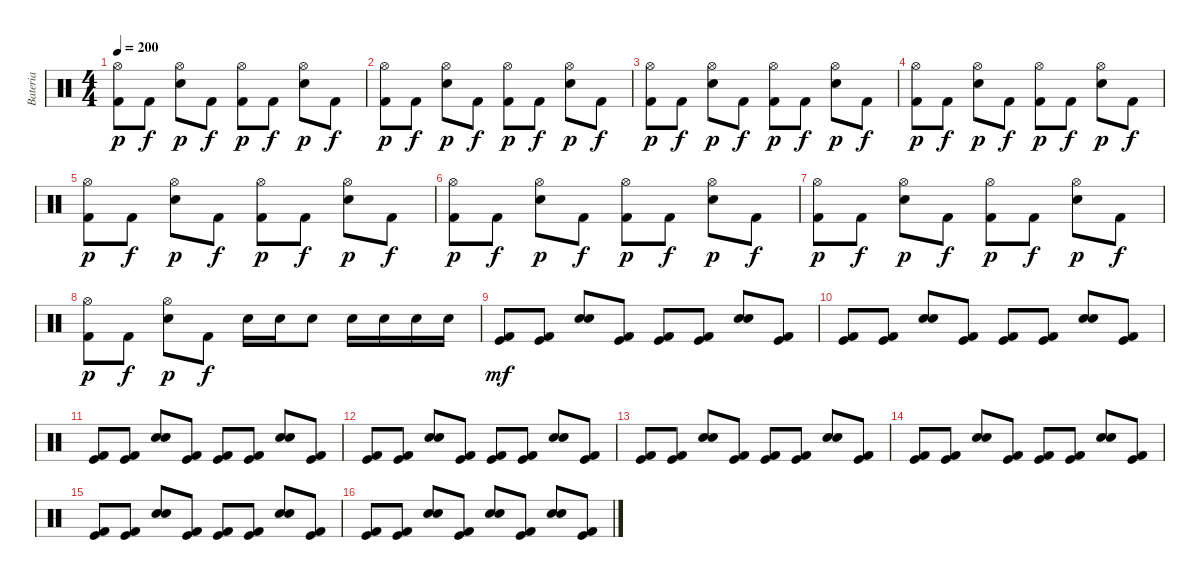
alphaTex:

\track ("Bateria" "Bateria") {instrument percussion}
\staff {score}
\articulation defaults
\ts (4 4)
\tempo 200
\clef neutral
\ks c
("Kick (hit) 2" "Hi-Hat (open)").8{dy p} "Kick (hit) 2".8{dy f} ("Electric Snare (hit)" "Hi-Hat (open)").8{dy p} "Kick (hit) 2".8{dy f} ("Kick (hit) 2" "Hi-Hat (open)").8{dy p} "Kick (hit) 2".8{dy f} ("Electric Snare (hit)" "Hi-Hat (open)").8{dy p} "Kick (hit) 2".8{dy f} |
("Kick (hit) 2" "Hi-Hat (open)").8{dy p} "Kick (hit) 2".8{dy f} ("Electric Snare (hit)" "Hi-Hat (open)").8{dy p} "Kick (hit) 2".8{dy f} ("Kick (hit) 2" "Hi-Hat (open)").8{dy p} "Kick (hit) 2".8{dy f} ("Electric Snare (hit)" "Hi-Hat (open)").8{dy p} "Kick (hit) 2".8{dy f} |
("Kick (hit) 2" "Hi-Hat (open)").8{dy p} "Kick (hit) 2".8{dy f} ("Electric Snare (hit)" "Hi-Hat (open)").8{dy p} "Kick (hit) 2".8{dy f} ("Kick (hit) 2" "Hi-Hat (open)").8{dy p} "Kick (hit) 2".8{dy f} ("Electric Snare (hit)" "Hi-Hat (open)").8{dy p} "Kick (hit) 2".8{dy f} |
("Kick (hit) 2" "Hi-Hat (open)").8{dy p} "Kick (hit) 2".8{dy f} ("Electric Snare (hit)" "Hi-Hat (open)").8{dy p} "Kick (hit) 2".8{dy f} ("Kick (hit) 2" "Hi-Hat (open)").8{dy p} "Kick (hit) 2".8{dy f} ("Electric Snare (hit)" "Hi-Hat (open)").8{dy p} "Kick (hit) 2".8{dy f} |
("Kick (hit) 2" "Hi-Hat (open)").8{dy p} "Kick (hit) 2".8{dy f} ("Electric Snare (hit)" "Hi-Hat (open)").8{dy p} "Kick (hit) 2".8{dy f} ("Kick (hit) 2" "Hi-Hat (open)").8{dy p} "Kick (hit) 2".8{dy f} ("Electric Snare (hit)" "Hi-Hat (open)").8{dy p} "Kick (hit) 2".8{dy f} |
("Kick (hit) 2" "Hi-Hat (open)").8{dy p} "Kick (hit) 2".8{dy f} ("Electric Snare (hit)" "Hi-Hat (open)").8{dy p} "Kick (hit) 2".8{dy f} ("Kick (hit) 2" "Hi-Hat (open)").8{dy p} "Kick (hit) 2".8{dy f} ("Electric Snare (hit)" "Hi-Hat (open)").8{dy p} "Kick (hit) 2".8{dy f} |
("Kick (hit) 2" "Hi-Hat (open)").8{dy p} "Kick (hit) 2".8{dy f} ("Electric Snare (hit)" "Hi-Hat (open)").8{dy p} "Kick (hit) 2".8{dy f} ("Kick (hit) 2" "Hi-Hat (open)").8{dy p} "Kick (hit) 2".8{dy f} ("Electric Snare (hit)" "Hi-Hat (open)").8{dy p} "Kick (hit) 2".8{dy f} |
("Kick (hit) 2" "Hi-Hat (open)").8{dy p} "Kick (hit) 2".8{dy f} ("Electric Snare (hit)" "Hi-Hat (open)").8{dy p} "Kick (hit) 2".8{dy f} "Electric Snare (hit)".16 "Electric Snare (hit)".16 "Electric Snare (hit)".8 "Electric Snare (hit)".16 "Electric Snare (hit)".16 "Electric Snare (hit)".16 "Electric Snare (hit)".16 |
("Kick (hit)" "Kick (hit) 2").8{dy mf} ("Kick (hit)" "Kick (hit) 2").8 ("Electric Snare (hit)" "Snare (hit) 2").8 ("Kick (hit)" "Kick (hit) 2").8 ("Kick (hit)" "Kick (hit) 2").8 ("Kick (hit)" "Kick (hit) 2").8 ("Electric Snare (hit)" "Snare (hit) 2").8 ("Kick (hit)" "Kick (hit) 2").8 |
("Kick (hit)" "Kick (hit) 2").8 ("Kick (hit)" "Kick (hit) 2").8 ("Electric Snare (hit)" "Snare (hit) 2").8 ("Kick (hit)" "Kick (hit) 2").8 ("Kick (hit)" "Kick (hit) 2").8 ("Kick (hit)" "Kick (hit) 2").8 ("Electric Snare (hit)" "Snare (hit) 2").8 ("Kick (hit)" "Kick (hit) 2").8 |
("Kick (hit)" "Kick (hit) 2").8 ("Kick (hit)" "Kick (hit) 2").8 ("Electric Snare (hit)" "Snare (hit) 2").8 ("Kick (hit)" "Kick (hit) 2").8 ("Kick (hit)" "Kick (hit) 2").8 ("Kick (hit)" "Kick (hit) 2").8 ("Electric Snare (hit)" "Snare (hit) 2").8 ("Kick (hit)" "Kick (hit) 2").8 |
("Kick (hit)" "Kick (hit) 2").8 ("Kick (hit)" "Kick (hit) 2").8 ("Electric Snare (hit)" "Snare (hit) 2").8 ("Kick (hit)" "Kick (hit) 2").8 ("Kick (hit)" "Kick (hit) 2").8 ("Kick (hit)" "Kick (hit) 2").8 ("Electric Snare (hit)" "Snare (hit) 2").8 ("Kick (hit)" "Kick (hit) 2").8 |
("Kick (hit)" "Kick (hit) 2").8 ("Kick (hit)" "Kick (hit) 2").8 ("Electric Snare (hit)" "Snare (hit) 2").8 ("Kick (hit)" "Kick (hit) 2").8 ("Kick (hit)" "Kick (hit) 2").8 ("Kick (hit)" "Kick (hit) 2").8 ("Electric Snare (hit)" "Snare (hit) 2").8 ("Kick (hit)" "Kick (hit) 2").8 |
("Kick (hit)" "Kick (hit) 2").8 ("Kick (hit)" "Kick (hit) 2").8 ("Electric Snare (hit)" "Snare (hit) 2").8 ("Kick (hit)" "Kick (hit) 2").8 ("Kick (hit)" "Kick (hit) 2").8 ("Kick (hit)" "Kick (hit) 2").8 ("Electric Snare (hit)" "Snare (hit) 2").8 ("Kick (hit)" "Kick (hit) 2").8 |
("Kick (hit)" "Kick (hit) 2").8 ("Kick (hit)" "Kick (hit) 2").8 ("Electric Snare (hit)" "Snare (hit) 2").8 ("Kick (hit)" "Kick (hit) 2").8 ("Kick (hit) 2" "Kick (hit)").8 ("Kick (hit)" "Kick (hit) 2").8 ("Electric Snare (hit)" "Snare (hit) 2").8 ("Kick (hit)" "Kick (hit) 2").8 |
("Kick (hit)" "Kick (hit) 2").8 ("Kick (hit)" "Kick (hit) 2").8 ("Electric Snare (hit)" "Snare (hit) 2").8 ("Kick (hit)" "Kick (hit) 2").8 ("Electric Snare (hit)" "Snare (hit) 2").8 ("Kick (hit)" "Kick (hit) 2").8 ("Electric Snare (hit)" "Snare (hit) 2").8 ("Kick (hit)" "Kick (hit) 2").8
